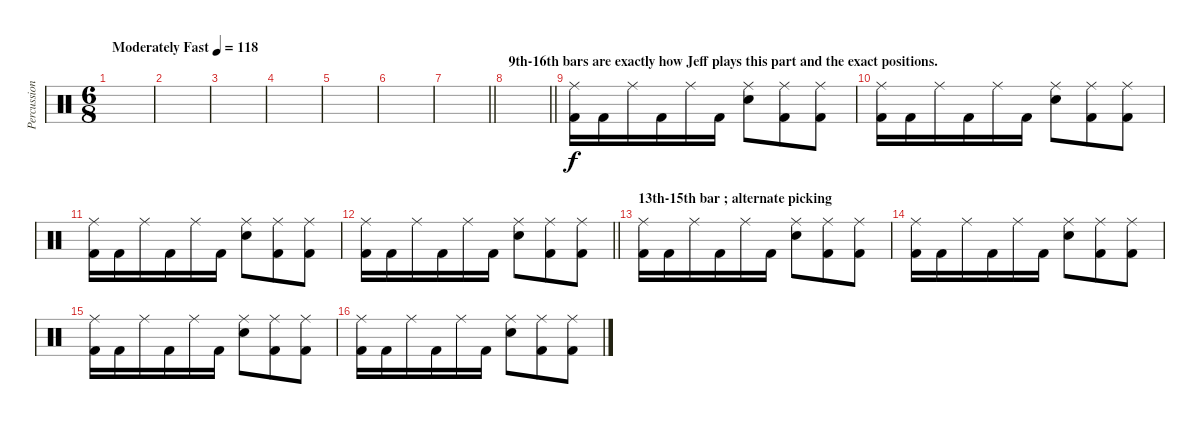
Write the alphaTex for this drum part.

\track ("Percussion" "Percussion") {instrument percussion}
\staff {score}
\articulation defaults
\ts (6 8)
\tempo (118 "Moderately Fast")
\clef neutral
\ks c
|
|
|
|
|
|
\barLineRight lightlight
|
\section ("" "9th-16th bars are exactly how Jeff plays this part and the exact positions.")
\barLineRight lightlight
|
\section ("" "")
("Ride (middle)" "Kick (hit) 2").16 "Kick (hit) 2".16 "Ride (middle)".16 "Kick (hit) 2".16 "Ride (middle)".16 "Kick (hit) 2".16 ("Ride (middle)" "Electric Snare (hit)").8 ("Ride (middle)" "Kick (hit) 2").8 ("Ride (middle)" "Kick (hit) 2").8 |
("Ride (middle)" "Kick (hit) 2").16 "Kick (hit) 2".16 "Ride (middle)".16 "Kick (hit) 2".16 "Ride (middle)".16 "Kick (hit) 2".16 ("Ride (middle)" "Electric Snare (hit)").8 ("Ride (middle)" "Kick (hit) 2").8 ("Ride (middle)" "Kick (hit) 2").8 |
("Ride (middle)" "Kick (hit) 2").16 "Kick (hit) 2".16 "Ride (middle)".16 "Kick (hit) 2".16 "Ride (middle)".16 "Kick (hit) 2".16 ("Ride (middle)" "Electric Snare (hit)").8 ("Ride (middle)" "Kick (hit) 2").8 ("Ride (middle)" "Kick (hit) 2").8 |
\barLineRight lightlight
("Ride (middle)" "Kick (hit) 2").16 "Kick (hit) 2".16 "Ride (middle)".16 "Kick (hit) 2".16 "Ride (middle)".16 "Kick (hit) 2".16 ("Ride (middle)" "Electric Snare (hit)").8 ("Ride (middle)" "Kick (hit) 2").8 ("Ride (middle)" "Kick (hit) 2").8 |
\section ("" "13th-15th bar ; alternate picking")
("Ride (middle)" "Kick (hit) 2").16 "Kick (hit) 2".16 "Ride (middle)".16 "Kick (hit) 2".16 "Ride (middle)".16 "Kick (hit) 2".16 ("Ride (middle)" "Electric Snare (hit)").8 ("Ride (middle)" "Kick (hit) 2").8 ("Ride (middle)" "Kick (hit) 2").8 |
("Ride (middle)" "Kick (hit) 2").16 "Kick (hit) 2".16 "Ride (middle)".16 "Kick (hit) 2".16 "Ride (middle)".16 "Kick (hit) 2".16 ("Ride (middle)" "Electric Snare (hit)").8 ("Ride (middle)" "Kick (hit) 2").8 ("Ride (middle)" "Kick (hit) 2").8 |
("Ride (middle)" "Kick (hit) 2").16 "Kick (hit) 2".16 "Ride (middle)".16 "Kick (hit) 2".16 "Ride (middle)".16 "Kick (hit) 2".16 ("Ride (middle)" "Electric Snare (hit)").8 ("Ride (middle)" "Kick (hit) 2").8 ("Ride (middle)" "Kick (hit) 2").8 |
("Ride (middle)" "Kick (hit) 2").16 "Kick (hit) 2".16 "Ride (middle)".16 "Kick (hit) 2".16 "Ride (middle)".16 "Kick (hit) 2".16 ("Ride (middle)" "Electric Snare (hit)").8 ("Ride (middle)" "Kick (hit) 2").8 ("Ride (middle)" "Kick (hit) 2").8
